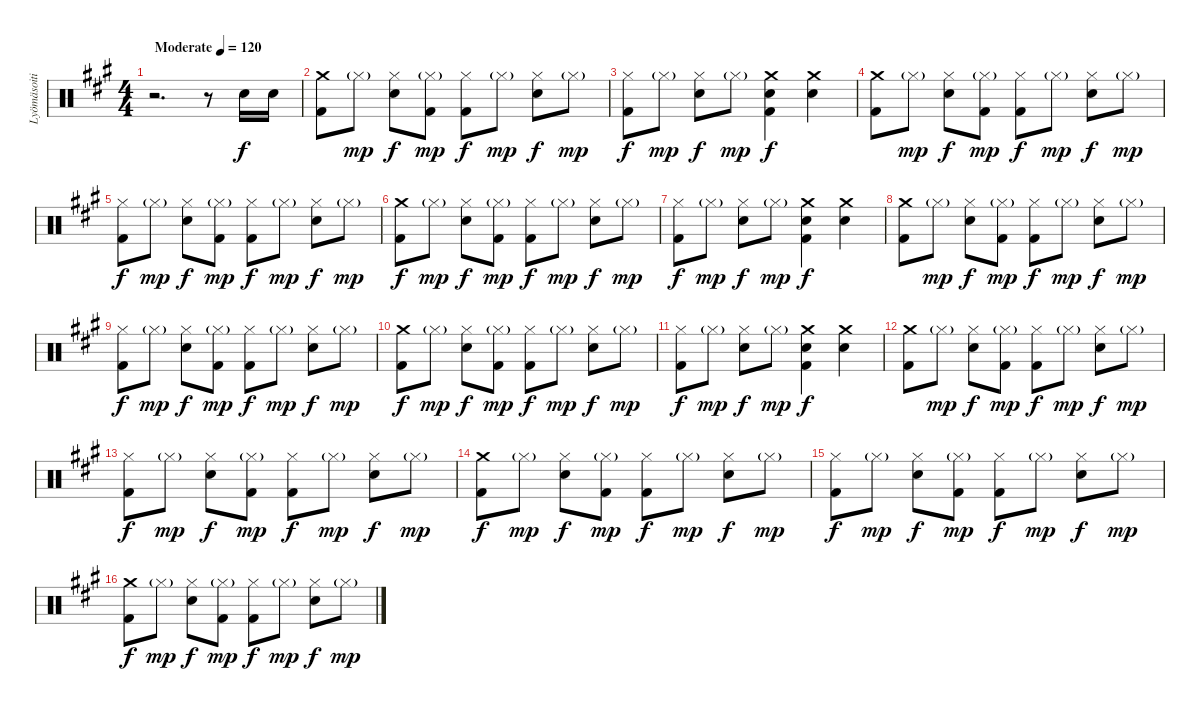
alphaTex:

\track ("Lyömäsoitin" "Lyömäsoiti") {instrument percussion}
\staff {score}
\articulation defaults
\ts (4 4)
\tempo (120 "Moderate")
\clef neutral
\ks f#minor
r.2{d dy f} r.8 "Snare (hit) 2".16 "Snare (hit) 2".16 |
("Kick (hit) 2" "Crash medium (hit)").8 "Hi-Hat (closed)"{g}.8{dy mp} ("Hi-Hat (closed)" "Snare (hit) 2").8{dy f} ("Hi-Hat (closed)"{g} "Kick (hit) 2").8{dy mp} ("Hi-Hat (closed)" "Kick (hit) 2").8{dy f} "Hi-Hat (closed)"{g}.8{dy mp} ("Hi-Hat (closed)" "Snare (hit) 2").8{dy f} "Hi-Hat (closed)"{g}.8{dy mp} |
("Kick (hit) 2" "Hi-Hat (closed)").8{dy f} "Hi-Hat (closed)"{g}.8{dy mp} ("Hi-Hat (closed)" "Snare (hit) 2").8{dy f} "Hi-Hat (closed)"{g}.8{dy mp} ("Snare (hit) 2" "Crash medium (hit)" "Kick (hit) 2").4{dy f} ("Snare (hit) 2" "Crash medium (hit)").4 |
("Kick (hit) 2" "Crash medium (hit)").8 "Hi-Hat (closed)"{g}.8{dy mp} ("Hi-Hat (closed)" "Snare (hit) 2").8{dy f} ("Hi-Hat (closed)"{g} "Kick (hit) 2").8{dy mp} ("Hi-Hat (closed)" "Kick (hit) 2").8{dy f} "Hi-Hat (closed)"{g}.8{dy mp} ("Hi-Hat (closed)" "Snare (hit) 2").8{dy f} "Hi-Hat (closed)"{g}.8{dy mp} |
("Hi-Hat (closed)" "Kick (hit) 2").8{dy f} "Hi-Hat (closed)"{g}.8{dy mp} ("Hi-Hat (closed)" "Snare (hit) 2").8{dy f} ("Hi-Hat (closed)"{g} "Kick (hit) 2").8{dy mp} ("Hi-Hat (closed)" "Kick (hit) 2").8{dy f} "Hi-Hat (closed)"{g}.8{dy mp} ("Hi-Hat (closed)" "Snare (hit) 2").8{dy f} "Hi-Hat (closed)"{g}.8{dy mp} |
("Kick (hit) 2" "Crash medium (hit)").8{dy f} "Hi-Hat (closed)"{g}.8{dy mp} ("Hi-Hat (closed)" "Snare (hit) 2").8{dy f} ("Hi-Hat (closed)"{g} "Kick (hit) 2").8{dy mp} ("Hi-Hat (closed)" "Kick (hit) 2").8{dy f} "Hi-Hat (closed)"{g}.8{dy mp} ("Hi-Hat (closed)" "Snare (hit) 2").8{dy f} "Hi-Hat (closed)"{g}.8{dy mp} |
("Kick (hit) 2" "Hi-Hat (closed)").8{dy f} "Hi-Hat (closed)"{g}.8{dy mp} ("Hi-Hat (closed)" "Snare (hit) 2").8{dy f} "Hi-Hat (closed)"{g}.8{dy mp} ("Snare (hit) 2" "Crash medium (hit)" "Kick (hit) 2").4{dy f} ("Snare (hit) 2" "Crash medium (hit)").4 |
("Kick (hit) 2" "Crash medium (hit)").8 "Hi-Hat (closed)"{g}.8{dy mp} ("Hi-Hat (closed)" "Snare (hit) 2").8{dy f} ("Hi-Hat (closed)"{g} "Kick (hit) 2").8{dy mp} ("Hi-Hat (closed)" "Kick (hit) 2").8{dy f} "Hi-Hat (closed)"{g}.8{dy mp} ("Hi-Hat (closed)" "Snare (hit) 2").8{dy f} "Hi-Hat (closed)"{g}.8{dy mp} |
("Hi-Hat (closed)" "Kick (hit) 2").8{dy f} "Hi-Hat (closed)"{g}.8{dy mp} ("Hi-Hat (closed)" "Snare (hit) 2").8{dy f} ("Hi-Hat (closed)"{g} "Kick (hit) 2").8{dy mp} ("Hi-Hat (closed)" "Kick (hit) 2").8{dy f} "Hi-Hat (closed)"{g}.8{dy mp} ("Hi-Hat (closed)" "Snare (hit) 2").8{dy f} "Hi-Hat (closed)"{g}.8{dy mp} |
("Kick (hit) 2" "Crash medium (hit)").8{dy f} "Hi-Hat (closed)"{g}.8{dy mp} ("Hi-Hat (closed)" "Snare (hit) 2").8{dy f} ("Hi-Hat (closed)"{g} "Kick (hit) 2").8{dy mp} ("Hi-Hat (closed)" "Kick (hit) 2").8{dy f} "Hi-Hat (closed)"{g}.8{dy mp} ("Hi-Hat (closed)" "Snare (hit) 2").8{dy f} "Hi-Hat (closed)"{g}.8{dy mp} |
("Kick (hit) 2" "Hi-Hat (closed)").8{dy f} "Hi-Hat (closed)"{g}.8{dy mp} ("Hi-Hat (closed)" "Snare (hit) 2").8{dy f} "Hi-Hat (closed)"{g}.8{dy mp} ("Snare (hit) 2" "Crash medium (hit)" "Kick (hit) 2").4{dy f} ("Snare (hit) 2" "Crash medium (hit)").4 |
("Kick (hit) 2" "Crash medium (hit)").8 "Hi-Hat (closed)"{g}.8{dy mp} ("Hi-Hat (closed)" "Snare (hit) 2").8{dy f} ("Hi-Hat (closed)"{g} "Kick (hit) 2").8{dy mp} ("Hi-Hat (closed)" "Kick (hit) 2").8{dy f} "Hi-Hat (closed)"{g}.8{dy mp} ("Hi-Hat (closed)" "Snare (hit) 2").8{dy f} "Hi-Hat (closed)"{g}.8{dy mp} |
("Hi-Hat (closed)" "Kick (hit) 2").8{dy f} "Hi-Hat (closed)"{g}.8{dy mp} ("Hi-Hat (closed)" "Snare (hit) 2").8{dy f} ("Hi-Hat (closed)"{g} "Kick (hit) 2").8{dy mp} ("Hi-Hat (closed)" "Kick (hit) 2").8{dy f} "Hi-Hat (closed)"{g}.8{dy mp} ("Hi-Hat (closed)" "Snare (hit) 2").8{dy f} "Hi-Hat (closed)"{g}.8{dy mp} |
("Kick (hit) 2" "Crash medium (hit)").8{dy f} "Hi-Hat (closed)"{g}.8{dy mp} ("Snare (hit) 2" "Hi-Hat (closed)").8{dy f} ("Hi-Hat (closed)"{g} "Kick (hit) 2").8{dy mp} ("Hi-Hat (closed)" "Kick (hit) 2").8{dy f} "Hi-Hat (closed)"{g}.8{dy mp} ("Hi-Hat (closed)" "Snare (hit) 2").8{dy f} "Hi-Hat (closed)"{g}.8{dy mp} |
("Hi-Hat (closed)" "Kick (hit) 2").8{dy f} "Hi-Hat (closed)"{g}.8{dy mp} ("Hi-Hat (closed)" "Snare (hit) 2").8{dy f} ("Hi-Hat (closed)"{g} "Kick (hit) 2").8{dy mp} ("Hi-Hat (closed)" "Kick (hit) 2").8{dy f} "Hi-Hat (closed)"{g}.8{dy mp} ("Hi-Hat (closed)" "Snare (hit) 2").8{dy f} "Hi-Hat (closed)"{g}.8{dy mp} |
("Kick (hit) 2" "Crash medium (hit)").8{dy f} "Hi-Hat (closed)"{g}.8{dy mp} ("Snare (hit) 2" "Hi-Hat (closed)").8{dy f} ("Hi-Hat (closed)"{g} "Kick (hit) 2").8{dy mp} ("Hi-Hat (closed)" "Kick (hit) 2").8{dy f} "Hi-Hat (closed)"{g}.8{dy mp} ("Hi-Hat (closed)" "Snare (hit) 2").8{dy f} "Hi-Hat (closed)"{g}.8{dy mp}
